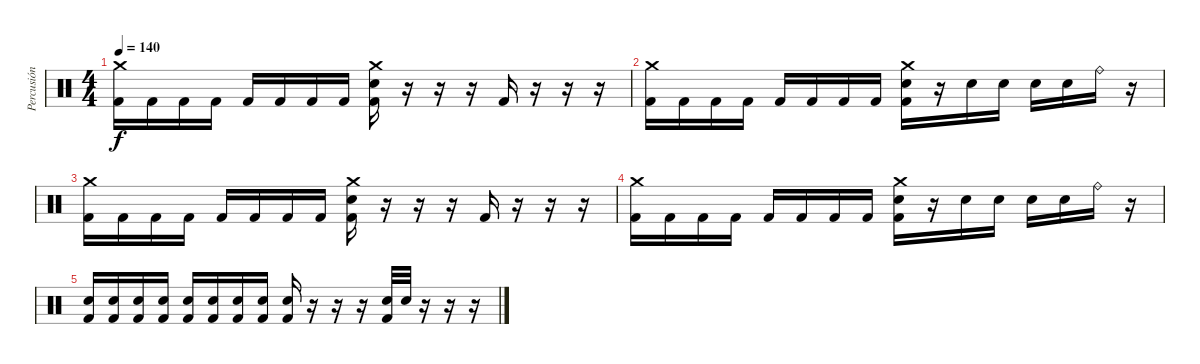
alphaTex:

\track ("Percusión" "Percusión") {instrument percussion}
\staff {score}
\articulation defaults
\ts (4 4)
\tempo 140
\clef neutral
\ks c
("Crash medium (hit)" "Kick (hit) 2").16{dy f} "Kick (hit) 2".16 "Kick (hit) 2".16 "Kick (hit) 2".16 "Kick (hit) 2".16 "Kick (hit) 2".16 "Kick (hit) 2".16 "Kick (hit) 2".16 ("Crash medium (hit)" "Electric Snare (hit)" "Kick (hit) 2").16 r.16 r.16 r.16 "Kick (hit) 2".16 r.16 r.16 r.16 |
("Crash medium (hit)" "Kick (hit) 2").16 "Kick (hit) 2".16 "Kick (hit) 2".16 "Kick (hit) 2".16 "Kick (hit) 2".16 "Kick (hit) 2".16 "Kick (hit) 2".16 "Kick (hit) 2".16 ("Crash medium (hit)" "Electric Snare (hit)" "Kick (hit) 2").16 r.16 "Electric Snare (hit)".16 "Electric Snare (hit)".16 "Electric Snare (hit)".16 "Electric Snare (hit)".16 "Ride (bell)".16 r.16 |
("Crash medium (hit)" "Kick (hit) 2").16 "Kick (hit) 2".16 "Kick (hit) 2".16 "Kick (hit) 2".16 "Kick (hit) 2".16 "Kick (hit) 2".16 "Kick (hit) 2".16 "Kick (hit) 2".16 ("Crash medium (hit)" "Electric Snare (hit)" "Kick (hit) 2").16 r.16 r.16 r.16 "Kick (hit) 2".16 r.16 r.16 r.16 |
("Crash medium (hit)" "Kick (hit) 2").16 "Kick (hit) 2".16 "Kick (hit) 2".16 "Kick (hit) 2".16 "Kick (hit) 2".16 "Kick (hit) 2".16 "Kick (hit) 2".16 "Kick (hit) 2".16 ("Crash medium (hit)" "Electric Snare (hit)" "Kick (hit) 2").16 r.16 "Electric Snare (hit)".16 "Electric Snare (hit)".16 "Electric Snare (hit)".16 "Electric Snare (hit)".16 "Ride (bell)".16 r.16 |
("Electric Snare (hit)" "Kick (hit) 2").16 ("Electric Snare (hit)" "Kick (hit) 2").16 ("Electric Snare (hit)" "Kick (hit) 2").16 ("Electric Snare (hit)" "Kick (hit) 2").16 ("Electric Snare (hit)" "Kick (hit) 2").16 ("Electric Snare (hit)" "Kick (hit) 2").16 ("Electric Snare (hit)" "Kick (hit) 2").16 ("Electric Snare (hit)" "Kick (hit) 2").16 ("Electric Snare (hit)" "Kick (hit) 2").16 r.16 r.16 r.16 ("Electric Snare (hit)" "Kick (hit) 2").32 "Electric Snare (hit)".32 r.16 r.16 r.16
